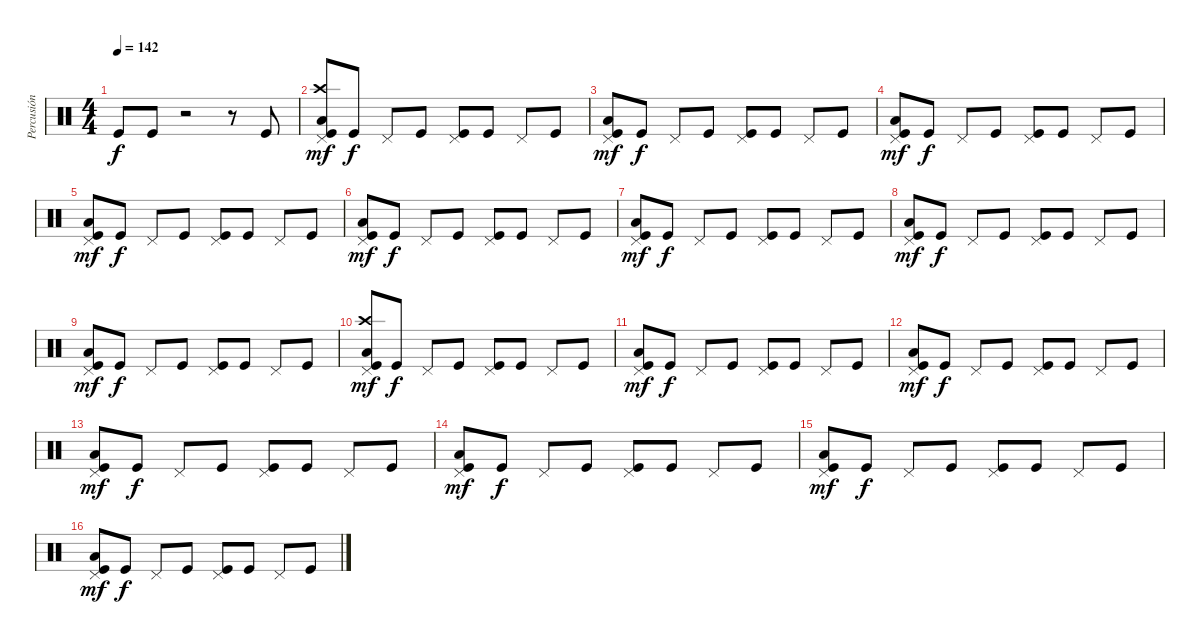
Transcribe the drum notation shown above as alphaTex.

\track ("Percusión" "Percusión") {instrument percussion}
\staff {score}
\articulation defaults
\ts (4 4)
\tempo 142
\clef neutral
\ks c "Kick (hit)".8{dy f} "Kick (hit)".8
r.2 r.8 "Kick (hit)".8 |
("Crash high (hit)" "Pedal Hi-Hat (hit)" "Kick (hit)" "Low Floor Tom (hit)").8{dy mf} "Kick (hit)".8{dy f} "Pedal Hi-Hat (hit)".8 "Kick (hit)".8 ("Pedal Hi-Hat (hit)" "Kick (hit)").8 "Kick (hit)".8 "Pedal Hi-Hat (hit)".8 "Kick (hit)".8 |
("Pedal Hi-Hat (hit)" "Kick (hit)" "Low Floor Tom (hit)").8{dy mf} "Kick (hit)".8{dy f} "Pedal Hi-Hat (hit)".8 "Kick (hit)".8 ("Pedal Hi-Hat (hit)" "Kick (hit)").8 "Kick (hit)".8 "Pedal Hi-Hat (hit)".8 "Kick (hit)".8 |
("Pedal Hi-Hat (hit)" "Kick (hit)" "Low Floor Tom (hit)").8{dy mf} "Kick (hit)".8{dy f} "Pedal Hi-Hat (hit)".8 "Kick (hit)".8 ("Pedal Hi-Hat (hit)" "Kick (hit)").8 "Kick (hit)".8 "Pedal Hi-Hat (hit)".8 "Kick (hit)".8 |
("Pedal Hi-Hat (hit)" "Kick (hit)" "Low Floor Tom (hit)").8{dy mf} "Kick (hit)".8{dy f} "Pedal Hi-Hat (hit)".8 "Kick (hit)".8 ("Pedal Hi-Hat (hit)" "Kick (hit)").8 "Kick (hit)".8 "Pedal Hi-Hat (hit)".8 "Kick (hit)".8 |
("Pedal Hi-Hat (hit)" "Kick (hit)" "Low Floor Tom (hit)").8{dy mf} "Kick (hit)".8{dy f} "Pedal Hi-Hat (hit)".8 "Kick (hit)".8 ("Pedal Hi-Hat (hit)" "Kick (hit)").8 "Kick (hit)".8 "Pedal Hi-Hat (hit)".8 "Kick (hit)".8 |
("Pedal Hi-Hat (hit)" "Kick (hit)" "Low Floor Tom (hit)").8{dy mf} "Kick (hit)".8{dy f} "Pedal Hi-Hat (hit)".8 "Kick (hit)".8 ("Pedal Hi-Hat (hit)" "Kick (hit)").8 "Kick (hit)".8 "Pedal Hi-Hat (hit)".8 "Kick (hit)".8 |
("Pedal Hi-Hat (hit)" "Kick (hit)" "Low Floor Tom (hit)").8{dy mf} "Kick (hit)".8{dy f} "Pedal Hi-Hat (hit)".8 "Kick (hit)".8 ("Pedal Hi-Hat (hit)" "Kick (hit)").8 "Kick (hit)".8 "Pedal Hi-Hat (hit)".8 "Kick (hit)".8 |
("Pedal Hi-Hat (hit)" "Kick (hit)" "Low Floor Tom (hit)").8{dy mf} "Kick (hit)".8{dy f} "Pedal Hi-Hat (hit)".8 "Kick (hit)".8 ("Pedal Hi-Hat (hit)" "Kick (hit)").8 "Kick (hit)".8 "Pedal Hi-Hat (hit)".8 "Kick (hit)".8 |
("Crash high (hit)" "Pedal Hi-Hat (hit)" "Kick (hit)" "Low Floor Tom (hit)").8{dy mf} "Kick (hit)".8{dy f} "Pedal Hi-Hat (hit)".8 "Kick (hit)".8 ("Pedal Hi-Hat (hit)" "Kick (hit)").8 "Kick (hit)".8 "Pedal Hi-Hat (hit)".8 "Kick (hit)".8 |
("Pedal Hi-Hat (hit)" "Kick (hit)" "Low Floor Tom (hit)").8{dy mf} "Kick (hit)".8{dy f} "Pedal Hi-Hat (hit)".8 "Kick (hit)".8 ("Pedal Hi-Hat (hit)" "Kick (hit)").8 "Kick (hit)".8 "Pedal Hi-Hat (hit)".8 "Kick (hit)".8 |
("Pedal Hi-Hat (hit)" "Kick (hit)" "Low Floor Tom (hit)").8{dy mf} "Kick (hit)".8{dy f} "Pedal Hi-Hat (hit)".8 "Kick (hit)".8 ("Pedal Hi-Hat (hit)" "Kick (hit)").8 "Kick (hit)".8 "Pedal Hi-Hat (hit)".8 "Kick (hit)".8 |
("Pedal Hi-Hat (hit)" "Kick (hit)" "Low Floor Tom (hit)").8{dy mf} "Kick (hit)".8{dy f} "Pedal Hi-Hat (hit)".8 "Kick (hit)".8 ("Pedal Hi-Hat (hit)" "Kick (hit)").8 "Kick (hit)".8 "Pedal Hi-Hat (hit)".8 "Kick (hit)".8 |
("Pedal Hi-Hat (hit)" "Kick (hit)" "Low Floor Tom (hit)").8{dy mf} "Kick (hit)".8{dy f} "Pedal Hi-Hat (hit)".8 "Kick (hit)".8 ("Pedal Hi-Hat (hit)" "Kick (hit)").8 "Kick (hit)".8 "Pedal Hi-Hat (hit)".8 "Kick (hit)".8 |
("Pedal Hi-Hat (hit)" "Kick (hit)" "Low Floor Tom (hit)").8{dy mf} "Kick (hit)".8{dy f} "Pedal Hi-Hat (hit)".8 "Kick (hit)".8 ("Pedal Hi-Hat (hit)" "Kick (hit)").8 "Kick (hit)".8 "Pedal Hi-Hat (hit)".8 "Kick (hit)".8 |
("Pedal Hi-Hat (hit)" "Kick (hit)" "Low Floor Tom (hit)").8{dy mf} "Kick (hit)".8{dy f} "Pedal Hi-Hat (hit)".8 "Kick (hit)".8 ("Pedal Hi-Hat (hit)" "Kick (hit)").8 "Kick (hit)".8 "Pedal Hi-Hat (hit)".8 "Kick (hit)".8
